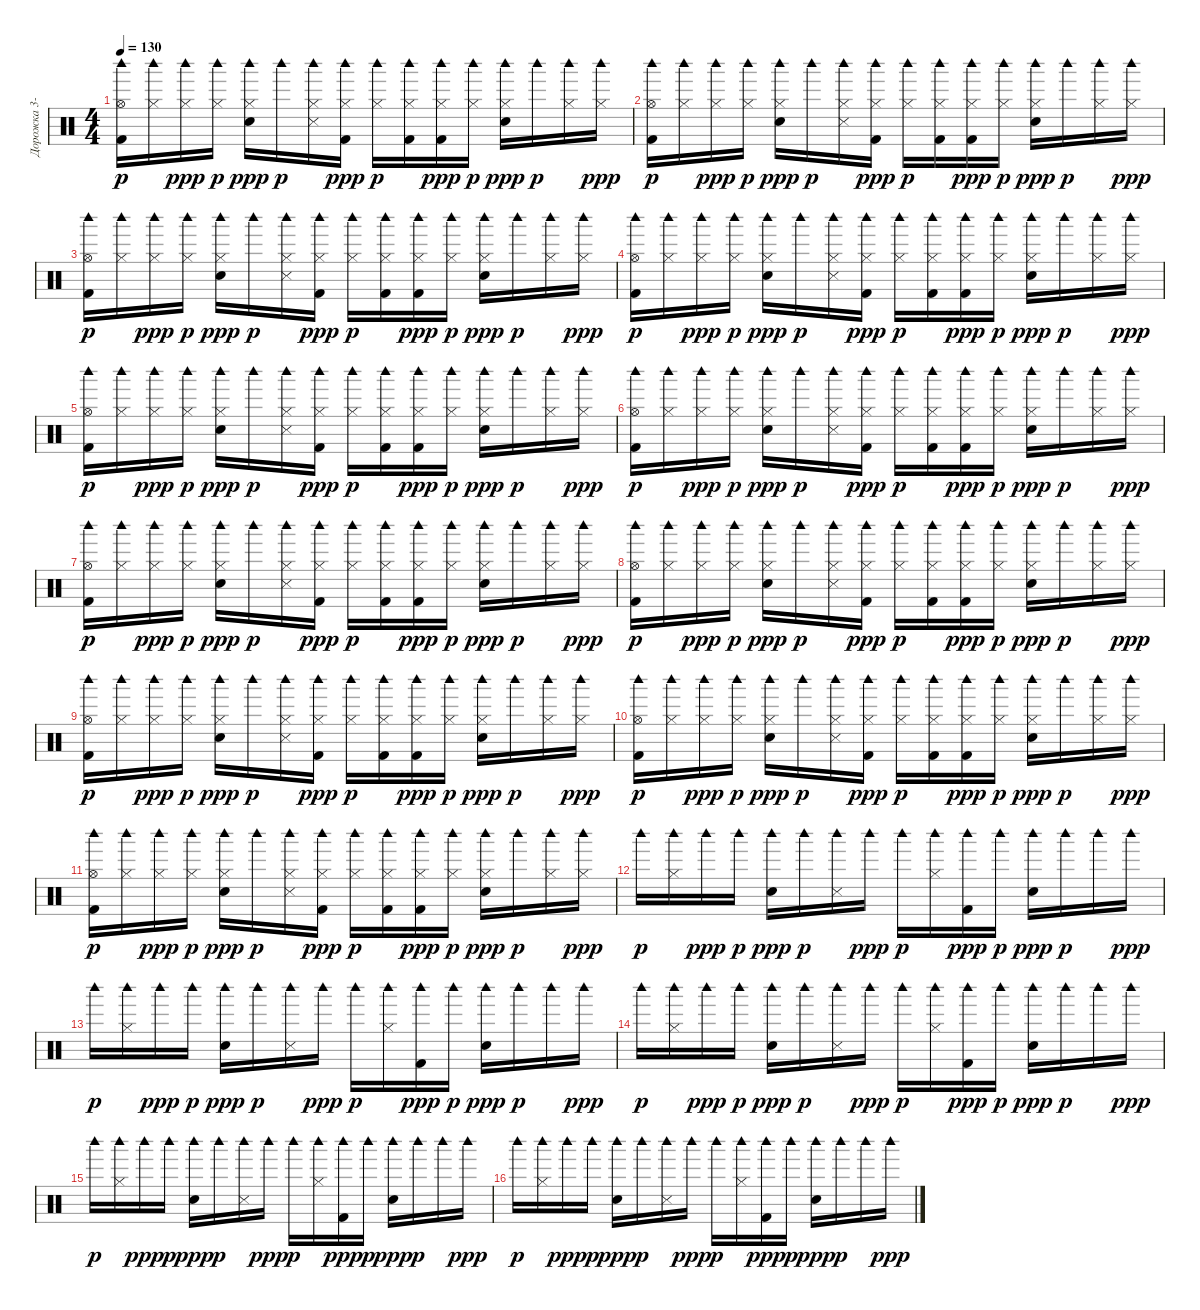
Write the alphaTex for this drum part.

\track ("Дорожка 3-4-5" "Дорожка 3-") {instrument percussion}
\staff {score}
\articulation defaults
\ts (4 4)
\tempo 130
\clef neutral
\ks c
("Kick (hit) 2" "Hi-Hat (open)" "Woodblock high (hit)").16{dy p} ("Hi-Hat (closed)" "Woodblock high (hit)").16 ("Hi-Hat (closed)" "Woodblock high (hit)").16{dy ppp} ("Hi-Hat (closed)" "Woodblock high (hit)").16{dy p} ("Electric Snare (hit)" "Hi-Hat (closed)" "Woodblock high (hit)").16{dy ppp} "Woodblock high (hit)".16{dy p} ("Snare (side stick) 3" "Hi-Hat (closed)" "Woodblock high (hit)").16 ("Kick (hit) 2" "Hi-Hat (closed)" "Woodblock high (hit)").16{dy ppp} ("Hi-Hat (closed)" "Woodblock high (hit)").16{dy p} ("Kick (hit) 2" "Hi-Hat (closed)" "Woodblock high (hit)").16 ("Kick (hit) 2" "Hi-Hat (closed)" "Woodblock high (hit)").16{dy ppp} ("Hi-Hat (closed)" "Woodblock high (hit)").16{dy p} ("Electric Snare (hit)" "Hi-Hat (closed)" "Woodblock high (hit)").16{dy ppp} "Woodblock high (hit)".16{dy p} ("Hi-Hat (closed)" "Woodblock high (hit)").16 ("Hi-Hat (closed)" "Woodblock high (hit)").16{dy ppp} |
("Kick (hit) 2" "Hi-Hat (open)" "Woodblock high (hit)").16{dy p} ("Hi-Hat (closed)" "Woodblock high (hit)").16 ("Hi-Hat (closed)" "Woodblock high (hit)").16{dy ppp} ("Hi-Hat (closed)" "Woodblock high (hit)").16{dy p} ("Electric Snare (hit)" "Hi-Hat (closed)" "Woodblock high (hit)").16{dy ppp} "Woodblock high (hit)".16{dy p} ("Snare (side stick) 3" "Hi-Hat (closed)" "Woodblock high (hit)").16 ("Kick (hit) 2" "Hi-Hat (closed)" "Woodblock high (hit)").16{dy ppp} ("Hi-Hat (closed)" "Woodblock high (hit)").16{dy p} ("Kick (hit) 2" "Hi-Hat (closed)" "Woodblock high (hit)").16 ("Kick (hit) 2" "Hi-Hat (closed)" "Woodblock high (hit)").16{dy ppp} ("Hi-Hat (closed)" "Woodblock high (hit)").16{dy p} ("Electric Snare (hit)" "Hi-Hat (closed)" "Woodblock high (hit)").16{dy ppp} "Woodblock high (hit)".16{dy p} ("Hi-Hat (closed)" "Woodblock high (hit)").16 ("Hi-Hat (closed)" "Woodblock high (hit)").16{dy ppp} |
("Kick (hit) 2" "Hi-Hat (open)" "Woodblock high (hit)").16{dy p} ("Hi-Hat (closed)" "Woodblock high (hit)").16 ("Hi-Hat (closed)" "Woodblock high (hit)").16{dy ppp} ("Hi-Hat (closed)" "Woodblock high (hit)").16{dy p} ("Electric Snare (hit)" "Hi-Hat (closed)" "Woodblock high (hit)").16{dy ppp} "Woodblock high (hit)".16{dy p} ("Snare (side stick) 3" "Hi-Hat (closed)" "Woodblock high (hit)").16 ("Kick (hit) 2" "Hi-Hat (closed)" "Woodblock high (hit)").16{dy ppp} ("Hi-Hat (closed)" "Woodblock high (hit)").16{dy p} ("Kick (hit) 2" "Hi-Hat (closed)" "Woodblock high (hit)").16 ("Kick (hit) 2" "Hi-Hat (closed)" "Woodblock high (hit)").16{dy ppp} ("Hi-Hat (closed)" "Woodblock high (hit)").16{dy p} ("Electric Snare (hit)" "Hi-Hat (closed)" "Woodblock high (hit)").16{dy ppp} "Woodblock high (hit)".16{dy p} ("Hi-Hat (closed)" "Woodblock high (hit)").16 ("Hi-Hat (closed)" "Woodblock high (hit)").16{dy ppp} |
("Kick (hit) 2" "Hi-Hat (open)" "Woodblock high (hit)").16{dy p} ("Hi-Hat (closed)" "Woodblock high (hit)").16 ("Hi-Hat (closed)" "Woodblock high (hit)").16{dy ppp} ("Hi-Hat (closed)" "Woodblock high (hit)").16{dy p} ("Electric Snare (hit)" "Hi-Hat (closed)" "Woodblock high (hit)").16{dy ppp} "Woodblock high (hit)".16{dy p} ("Snare (side stick) 3" "Hi-Hat (closed)" "Woodblock high (hit)").16 ("Kick (hit) 2" "Hi-Hat (closed)" "Woodblock high (hit)").16{dy ppp} ("Hi-Hat (closed)" "Woodblock high (hit)").16{dy p} ("Kick (hit) 2" "Hi-Hat (closed)" "Woodblock high (hit)").16 ("Kick (hit) 2" "Hi-Hat (closed)" "Woodblock high (hit)").16{dy ppp} ("Hi-Hat (closed)" "Woodblock high (hit)").16{dy p} ("Electric Snare (hit)" "Hi-Hat (closed)" "Woodblock high (hit)").16{dy ppp} "Woodblock high (hit)".16{dy p} ("Hi-Hat (closed)" "Woodblock high (hit)").16 ("Hi-Hat (closed)" "Woodblock high (hit)").16{dy ppp} |
("Kick (hit) 2" "Hi-Hat (open)" "Woodblock high (hit)").16{dy p} ("Hi-Hat (closed)" "Woodblock high (hit)").16 ("Hi-Hat (closed)" "Woodblock high (hit)").16{dy ppp} ("Hi-Hat (closed)" "Woodblock high (hit)").16{dy p} ("Electric Snare (hit)" "Hi-Hat (closed)" "Woodblock high (hit)").16{dy ppp} "Woodblock high (hit)".16{dy p} ("Snare (side stick) 3" "Hi-Hat (closed)" "Woodblock high (hit)").16 ("Kick (hit) 2" "Hi-Hat (closed)" "Woodblock high (hit)").16{dy ppp} ("Hi-Hat (closed)" "Woodblock high (hit)").16{dy p} ("Kick (hit) 2" "Hi-Hat (closed)" "Woodblock high (hit)").16 ("Kick (hit) 2" "Hi-Hat (closed)" "Woodblock high (hit)").16{dy ppp} ("Hi-Hat (closed)" "Woodblock high (hit)").16{dy p} ("Electric Snare (hit)" "Hi-Hat (closed)" "Woodblock high (hit)").16{dy ppp} "Woodblock high (hit)".16{dy p} ("Hi-Hat (closed)" "Woodblock high (hit)").16 ("Hi-Hat (closed)" "Woodblock high (hit)").16{dy ppp} |
("Kick (hit) 2" "Hi-Hat (open)" "Woodblock high (hit)").16{dy p} ("Hi-Hat (closed)" "Woodblock high (hit)").16 ("Hi-Hat (closed)" "Woodblock high (hit)").16{dy ppp} ("Hi-Hat (closed)" "Woodblock high (hit)").16{dy p} ("Electric Snare (hit)" "Hi-Hat (closed)" "Woodblock high (hit)").16{dy ppp} "Woodblock high (hit)".16{dy p} ("Snare (side stick) 3" "Hi-Hat (closed)" "Woodblock high (hit)").16 ("Kick (hit) 2" "Hi-Hat (closed)" "Woodblock high (hit)").16{dy ppp} ("Hi-Hat (closed)" "Woodblock high (hit)").16{dy p} ("Kick (hit) 2" "Hi-Hat (closed)" "Woodblock high (hit)").16 ("Kick (hit) 2" "Hi-Hat (closed)" "Woodblock high (hit)").16{dy ppp} ("Hi-Hat (closed)" "Woodblock high (hit)").16{dy p} ("Electric Snare (hit)" "Hi-Hat (closed)" "Woodblock high (hit)").16{dy ppp} "Woodblock high (hit)".16{dy p} ("Hi-Hat (closed)" "Woodblock high (hit)").16 ("Hi-Hat (closed)" "Woodblock high (hit)").16{dy ppp} |
("Kick (hit) 2" "Hi-Hat (open)" "Woodblock high (hit)").16{dy p} ("Hi-Hat (closed)" "Woodblock high (hit)").16 ("Hi-Hat (closed)" "Woodblock high (hit)").16{dy ppp} ("Hi-Hat (closed)" "Woodblock high (hit)").16{dy p} ("Electric Snare (hit)" "Hi-Hat (closed)" "Woodblock high (hit)").16{dy ppp} "Woodblock high (hit)".16{dy p} ("Snare (side stick) 3" "Hi-Hat (closed)" "Woodblock high (hit)").16 ("Kick (hit) 2" "Hi-Hat (closed)" "Woodblock high (hit)").16{dy ppp} ("Hi-Hat (closed)" "Woodblock high (hit)").16{dy p} ("Kick (hit) 2" "Hi-Hat (closed)" "Woodblock high (hit)").16 ("Kick (hit) 2" "Hi-Hat (closed)" "Woodblock high (hit)").16{dy ppp} ("Hi-Hat (closed)" "Woodblock high (hit)").16{dy p} ("Electric Snare (hit)" "Hi-Hat (closed)" "Woodblock high (hit)").16{dy ppp} "Woodblock high (hit)".16{dy p} ("Hi-Hat (closed)" "Woodblock high (hit)").16 ("Hi-Hat (closed)" "Woodblock high (hit)").16{dy ppp} |
("Kick (hit) 2" "Hi-Hat (open)" "Woodblock high (hit)").16{dy p} ("Hi-Hat (closed)" "Woodblock high (hit)").16 ("Hi-Hat (closed)" "Woodblock high (hit)").16{dy ppp} ("Hi-Hat (closed)" "Woodblock high (hit)").16{dy p} ("Electric Snare (hit)" "Hi-Hat (closed)" "Woodblock high (hit)").16{dy ppp} "Woodblock high (hit)".16{dy p} ("Snare (side stick) 3" "Hi-Hat (closed)" "Woodblock high (hit)").16 ("Kick (hit) 2" "Hi-Hat (closed)" "Woodblock high (hit)").16{dy ppp} ("Hi-Hat (closed)" "Woodblock high (hit)").16{dy p} ("Kick (hit) 2" "Hi-Hat (closed)" "Woodblock high (hit)").16 ("Kick (hit) 2" "Hi-Hat (closed)" "Woodblock high (hit)").16{dy ppp} ("Hi-Hat (closed)" "Woodblock high (hit)").16{dy p} ("Electric Snare (hit)" "Hi-Hat (closed)" "Woodblock high (hit)").16{dy ppp} "Woodblock high (hit)".16{dy p} ("Hi-Hat (closed)" "Woodblock high (hit)").16 ("Hi-Hat (closed)" "Woodblock high (hit)").16{dy ppp} |
("Kick (hit) 2" "Hi-Hat (open)" "Woodblock high (hit)").16{dy p} ("Hi-Hat (closed)" "Woodblock high (hit)").16 ("Hi-Hat (closed)" "Woodblock high (hit)").16{dy ppp} ("Hi-Hat (closed)" "Woodblock high (hit)").16{dy p} ("Electric Snare (hit)" "Hi-Hat (closed)" "Woodblock high (hit)").16{dy ppp} "Woodblock high (hit)".16{dy p} ("Snare (side stick) 3" "Hi-Hat (closed)" "Woodblock high (hit)").16 ("Kick (hit) 2" "Hi-Hat (closed)" "Woodblock high (hit)").16{dy ppp} ("Hi-Hat (closed)" "Woodblock high (hit)").16{dy p} ("Kick (hit) 2" "Hi-Hat (closed)" "Woodblock high (hit)").16 ("Kick (hit) 2" "Hi-Hat (closed)" "Woodblock high (hit)").16{dy ppp} ("Hi-Hat (closed)" "Woodblock high (hit)").16{dy p} ("Electric Snare (hit)" "Hi-Hat (closed)" "Woodblock high (hit)").16{dy ppp} "Woodblock high (hit)".16{dy p} ("Hi-Hat (closed)" "Woodblock high (hit)").16 ("Hi-Hat (closed)" "Woodblock high (hit)").16{dy ppp} |
("Kick (hit) 2" "Hi-Hat (open)" "Woodblock high (hit)").16{dy p} ("Hi-Hat (closed)" "Woodblock high (hit)").16 ("Hi-Hat (closed)" "Woodblock high (hit)").16{dy ppp} ("Hi-Hat (closed)" "Woodblock high (hit)").16{dy p} ("Electric Snare (hit)" "Hi-Hat (closed)" "Woodblock high (hit)").16{dy ppp} "Woodblock high (hit)".16{dy p} ("Snare (side stick) 3" "Hi-Hat (closed)" "Woodblock high (hit)").16 ("Kick (hit) 2" "Hi-Hat (closed)" "Woodblock high (hit)").16{dy ppp} ("Hi-Hat (closed)" "Woodblock high (hit)").16{dy p} ("Kick (hit) 2" "Hi-Hat (closed)" "Woodblock high (hit)").16 ("Kick (hit) 2" "Hi-Hat (closed)" "Woodblock high (hit)").16{dy ppp} ("Hi-Hat (closed)" "Woodblock high (hit)").16{dy p} ("Electric Snare (hit)" "Hi-Hat (closed)" "Woodblock high (hit)").16{dy ppp} "Woodblock high (hit)".16{dy p} ("Hi-Hat (closed)" "Woodblock high (hit)").16 ("Hi-Hat (closed)" "Woodblock high (hit)").16{dy ppp} |
("Kick (hit) 2" "Hi-Hat (open)" "Woodblock high (hit)").16{dy p} ("Hi-Hat (closed)" "Woodblock high (hit)").16 ("Hi-Hat (closed)" "Woodblock high (hit)").16{dy ppp} ("Hi-Hat (closed)" "Woodblock high (hit)").16{dy p} ("Electric Snare (hit)" "Hi-Hat (closed)" "Woodblock high (hit)").16{dy ppp} "Woodblock high (hit)".16{dy p} ("Snare (side stick) 3" "Hi-Hat (closed)" "Woodblock high (hit)").16 ("Kick (hit) 2" "Hi-Hat (closed)" "Woodblock high (hit)").16{dy ppp} ("Hi-Hat (closed)" "Woodblock high (hit)").16{dy p} ("Kick (hit) 2" "Hi-Hat (closed)" "Woodblock high (hit)").16 ("Kick (hit) 2" "Hi-Hat (closed)" "Woodblock high (hit)").16{dy ppp} ("Hi-Hat (closed)" "Woodblock high (hit)").16{dy p} ("Electric Snare (hit)" "Hi-Hat (closed)" "Woodblock high (hit)").16{dy ppp} "Woodblock high (hit)".16{dy p} ("Hi-Hat (closed)" "Woodblock high (hit)").16 ("Hi-Hat (closed)" "Woodblock high (hit)").16{dy ppp} |
"Woodblock high (hit)".16{dy p} ("Hi-Hat (closed)" "Woodblock high (hit)").16 "Woodblock high (hit)".16{dy ppp} "Woodblock high (hit)".16{dy p} ("Electric Snare (hit)" "Woodblock high (hit)").16{dy ppp} "Woodblock high (hit)".16{dy p} ("Snare (side stick) 3" "Woodblock high (hit)").16 "Woodblock high (hit)".16{dy ppp} "Woodblock high (hit)".16{dy p} ("Hi-Hat (closed)" "Woodblock high (hit)").16 ("Kick (hit) 2" "Woodblock high (hit)").16{dy ppp} "Woodblock high (hit)".16{dy p} ("Electric Snare (hit)" "Woodblock high (hit)").16{dy ppp} "Woodblock high (hit)".16{dy p} "Woodblock high (hit)".16 "Woodblock high (hit)".16{dy ppp} |
"Woodblock high (hit)".16{dy p} ("Hi-Hat (closed)" "Woodblock high (hit)").16 "Woodblock high (hit)".16{dy ppp} "Woodblock high (hit)".16{dy p} ("Electric Snare (hit)" "Woodblock high (hit)").16{dy ppp} "Woodblock high (hit)".16{dy p} ("Snare (side stick) 3" "Woodblock high (hit)").16 "Woodblock high (hit)".16{dy ppp} "Woodblock high (hit)".16{dy p} ("Hi-Hat (closed)" "Woodblock high (hit)").16 ("Kick (hit) 2" "Woodblock high (hit)").16{dy ppp} "Woodblock high (hit)".16{dy p} ("Electric Snare (hit)" "Woodblock high (hit)").16{dy ppp} "Woodblock high (hit)".16{dy p} "Woodblock high (hit)".16 "Woodblock high (hit)".16{dy ppp} |
"Woodblock high (hit)".16{dy p} ("Hi-Hat (closed)" "Woodblock high (hit)").16 "Woodblock high (hit)".16{dy ppp} "Woodblock high (hit)".16{dy p} ("Electric Snare (hit)" "Woodblock high (hit)").16{dy ppp} "Woodblock high (hit)".16{dy p} ("Snare (side stick) 3" "Woodblock high (hit)").16 "Woodblock high (hit)".16{dy ppp} "Woodblock high (hit)".16{dy p} ("Hi-Hat (closed)" "Woodblock high (hit)").16 ("Kick (hit) 2" "Woodblock high (hit)").16{dy ppp} "Woodblock high (hit)".16{dy p} ("Electric Snare (hit)" "Woodblock high (hit)").16{dy ppp} "Woodblock high (hit)".16{dy p} "Woodblock high (hit)".16 "Woodblock high (hit)".16{dy ppp} |
"Woodblock high (hit)".16{dy p} ("Hi-Hat (closed)" "Woodblock high (hit)").16 "Woodblock high (hit)".16{dy ppp} "Woodblock high (hit)".16{dy p} ("Electric Snare (hit)" "Woodblock high (hit)").16{dy ppp} "Woodblock high (hit)".16{dy p} ("Snare (side stick) 3" "Woodblock high (hit)").16 "Woodblock high (hit)".16{dy ppp} "Woodblock high (hit)".16{dy p} ("Hi-Hat (closed)" "Woodblock high (hit)").16 ("Kick (hit) 2" "Woodblock high (hit)").16{dy ppp} "Woodblock high (hit)".16{dy p} ("Electric Snare (hit)" "Woodblock high (hit)").16{dy ppp} "Woodblock high (hit)".16{dy p} "Woodblock high (hit)".16 "Woodblock high (hit)".16{dy ppp} |
"Woodblock high (hit)".16{dy p} ("Hi-Hat (closed)" "Woodblock high (hit)").16 "Woodblock high (hit)".16{dy ppp} "Woodblock high (hit)".16{dy p} ("Electric Snare (hit)" "Woodblock high (hit)").16{dy ppp} "Woodblock high (hit)".16{dy p} ("Snare (side stick) 3" "Woodblock high (hit)").16 "Woodblock high (hit)".16{dy ppp} "Woodblock high (hit)".16{dy p} ("Hi-Hat (closed)" "Woodblock high (hit)").16 ("Kick (hit) 2" "Woodblock high (hit)").16{dy ppp} "Woodblock high (hit)".16{dy p} ("Electric Snare (hit)" "Woodblock high (hit)").16{dy ppp} "Woodblock high (hit)".16{dy p} "Woodblock high (hit)".16 "Woodblock high (hit)".16{dy ppp}
